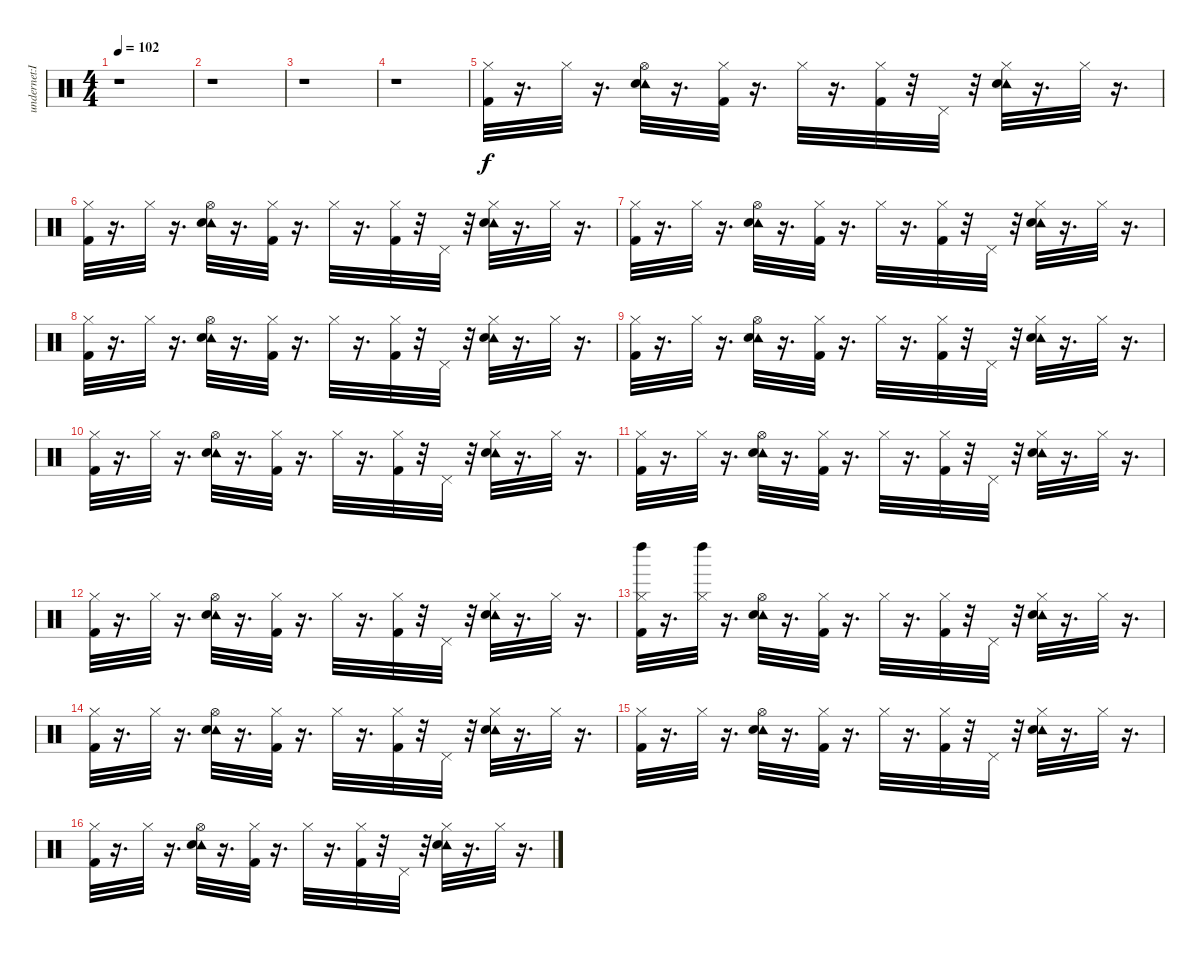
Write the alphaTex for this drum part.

\track ("undernet:IRC:bong21" "undernet:I") {instrument percussion}
\staff {score}
\articulation defaults
\ts (4 4)
\tempo 102
\clef neutral
\ks c
r.1{dy f} |
r.1 |
r.1 |
r.1 |
("Hi-Hat (closed)" "Kick (hit) 2").32 r.16{d} "Hi-Hat (closed)".32 r.16{d} ("Tambourine (hit)" "Hi-Hat (open)" "Electric Snare (hit)").32 r.16{d} ("Hi-Hat (closed)" "Kick (hit) 2").32 r.16{d} "Hi-Hat (closed)".32 r.16{d} ("Hi-Hat (closed)" "Kick (hit) 2").32 r.32 "Pedal Hi-Hat (hit)".32 r.32 ("Tambourine (hit)" "Hi-Hat (closed)" "Electric Snare (hit)").32 r.16{d} "Hi-Hat (closed)".32 r.16{d} |
("Hi-Hat (closed)" "Kick (hit) 2").32 r.16{d} "Hi-Hat (closed)".32 r.16{d} ("Tambourine (hit)" "Hi-Hat (open)" "Electric Snare (hit)").32 r.16{d} ("Hi-Hat (closed)" "Kick (hit) 2").32 r.16{d} "Hi-Hat (closed)".32 r.16{d} ("Hi-Hat (closed)" "Kick (hit) 2").32 r.32 "Pedal Hi-Hat (hit)".32 r.32 ("Tambourine (hit)" "Hi-Hat (closed)" "Electric Snare (hit)").32 r.16{d} "Hi-Hat (closed)".32 r.16{d} |
("Hi-Hat (closed)" "Kick (hit) 2").32 r.16{d} "Hi-Hat (closed)".32 r.16{d} ("Tambourine (hit)" "Hi-Hat (open)" "Electric Snare (hit)").32 r.16{d} ("Hi-Hat (closed)" "Kick (hit) 2").32 r.16{d} "Hi-Hat (closed)".32 r.16{d} ("Hi-Hat (closed)" "Kick (hit) 2").32 r.32 "Pedal Hi-Hat (hit)".32 r.32 ("Tambourine (hit)" "Hi-Hat (closed)" "Electric Snare (hit)").32 r.16{d} "Hi-Hat (closed)".32 r.16{d} |
("Hi-Hat (closed)" "Kick (hit) 2").32 r.16{d} "Hi-Hat (closed)".32 r.16{d} ("Tambourine (hit)" "Hi-Hat (open)" "Electric Snare (hit)").32 r.16{d} ("Hi-Hat (closed)" "Kick (hit) 2").32 r.16{d} "Hi-Hat (closed)".32 r.16{d} ("Hi-Hat (closed)" "Kick (hit) 2").32 r.32 "Pedal Hi-Hat (hit)".32 r.32 ("Tambourine (hit)" "Hi-Hat (closed)" "Electric Snare (hit)").32 r.16{d} "Hi-Hat (closed)".32 r.16{d} |
("Hi-Hat (closed)" "Kick (hit) 2").32 r.16{d} "Hi-Hat (closed)".32 r.16{d} ("Tambourine (hit)" "Hi-Hat (open)" "Electric Snare (hit)").32 r.16{d} ("Hi-Hat (closed)" "Kick (hit) 2").32 r.16{d} "Hi-Hat (closed)".32 r.16{d} ("Hi-Hat (closed)" "Kick (hit) 2").32 r.32 "Pedal Hi-Hat (hit)".32 r.32 ("Tambourine (hit)" "Hi-Hat (closed)" "Electric Snare (hit)").32 r.16{d} "Hi-Hat (closed)".32 r.16{d} |
("Hi-Hat (closed)" "Kick (hit) 2").32 r.16{d} "Hi-Hat (closed)".32 r.16{d} ("Tambourine (hit)" "Hi-Hat (open)" "Electric Snare (hit)").32 r.16{d} ("Hi-Hat (closed)" "Kick (hit) 2").32 r.16{d} "Hi-Hat (closed)".32 r.16{d} ("Hi-Hat (closed)" "Kick (hit) 2").32 r.32 "Pedal Hi-Hat (hit)".32 r.32 ("Tambourine (hit)" "Hi-Hat (closed)" "Electric Snare (hit)").32 r.16{d} "Hi-Hat (closed)".32 r.16{d} |
("Hi-Hat (closed)" "Kick (hit) 2").32 r.16{d} "Hi-Hat (closed)".32 r.16{d} ("Tambourine (hit)" "Hi-Hat (open)" "Electric Snare (hit)").32 r.16{d} ("Hi-Hat (closed)" "Kick (hit) 2").32 r.16{d} "Hi-Hat (closed)".32 r.16{d} ("Hi-Hat (closed)" "Kick (hit) 2").32 r.32 "Pedal Hi-Hat (hit)".32 r.32 ("Tambourine (hit)" "Hi-Hat (closed)" "Electric Snare (hit)").32 r.16{d} "Hi-Hat (closed)".32 r.16{d} |
("Hi-Hat (closed)" "Kick (hit) 2").32 r.16{d} "Hi-Hat (closed)".32 r.16{d} ("Tambourine (hit)" "Hi-Hat (open)" "Electric Snare (hit)").32 r.16{d} ("Hi-Hat (closed)" "Kick (hit) 2").32 r.16{d} "Hi-Hat (closed)".32 r.16{d} ("Hi-Hat (closed)" "Kick (hit) 2").32 r.32 "Pedal Hi-Hat (hit)".32 r.32 ("Tambourine (hit)" "Hi-Hat (closed)" "Electric Snare (hit)").32 r.16{d} "Hi-Hat (closed)".32 r.16{d} |
("Left Maraca (hit)" "Hi-Hat (closed)" "Kick (hit) 2").32 r.16{d} ("Left Maraca (hit)" "Hi-Hat (closed)").32 r.16{d} ("Tambourine (hit)" "Hi-Hat (open)" "Electric Snare (hit)").32 r.16{d} ("Hi-Hat (closed)" "Kick (hit) 2").32 r.16{d} "Hi-Hat (closed)".32 r.16{d} ("Hi-Hat (closed)" "Kick (hit) 2").32 r.32 "Pedal Hi-Hat (hit)".32 r.32 ("Tambourine (hit)" "Hi-Hat (closed)" "Electric Snare (hit)").32 r.16{d} "Hi-Hat (closed)".32 r.16{d} |
("Hi-Hat (closed)" "Kick (hit) 2").32 r.16{d} "Hi-Hat (closed)".32 r.16{d} ("Tambourine (hit)" "Hi-Hat (open)" "Electric Snare (hit)").32 r.16{d} ("Hi-Hat (closed)" "Kick (hit) 2").32 r.16{d} "Hi-Hat (closed)".32 r.16{d} ("Hi-Hat (closed)" "Kick (hit) 2").32 r.32 "Pedal Hi-Hat (hit)".32 r.32 ("Tambourine (hit)" "Hi-Hat (closed)" "Electric Snare (hit)").32 r.16{d} "Hi-Hat (closed)".32 r.16{d} |
("Hi-Hat (closed)" "Kick (hit) 2").32 r.16{d} "Hi-Hat (closed)".32 r.16{d} ("Tambourine (hit)" "Hi-Hat (open)" "Electric Snare (hit)").32 r.16{d} ("Hi-Hat (closed)" "Kick (hit) 2").32 r.16{d} "Hi-Hat (closed)".32 r.16{d} ("Hi-Hat (closed)" "Kick (hit) 2").32 r.32 "Pedal Hi-Hat (hit)".32 r.32 ("Tambourine (hit)" "Hi-Hat (closed)" "Electric Snare (hit)").32 r.16{d} "Hi-Hat (closed)".32 r.16{d} |
("Hi-Hat (closed)" "Kick (hit) 2").32 r.16{d} "Hi-Hat (closed)".32 r.16{d} ("Tambourine (hit)" "Hi-Hat (open)" "Electric Snare (hit)").32 r.16{d} ("Hi-Hat (closed)" "Kick (hit) 2").32 r.16{d} "Hi-Hat (closed)".32 r.16{d} ("Hi-Hat (closed)" "Kick (hit) 2").32 r.32 "Pedal Hi-Hat (hit)".32 r.32 ("Tambourine (hit)" "Hi-Hat (closed)" "Electric Snare (hit)").32 r.16{d} "Hi-Hat (closed)".32 r.16{d}
